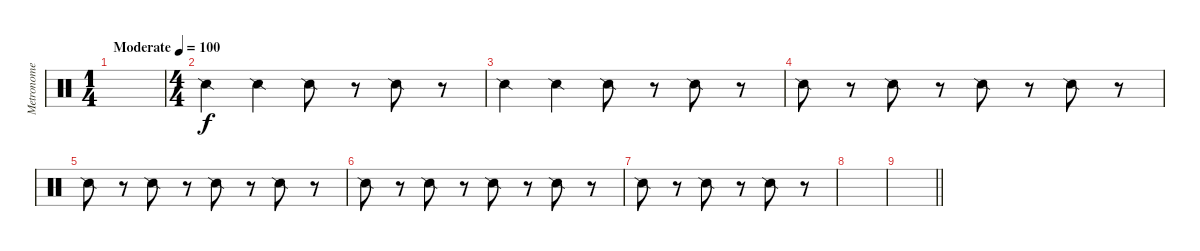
\track ("Metronome" "Metronome") {instrument percussion}
\staff {score}
\articulation defaults
\ts (1 4)
\tempo (100 "Moderate")
\clef neutral
\ks c
|
\ts (4 4)
"Snare (side stick) 2".4 "Snare (side stick) 2".4 "Snare (side stick) 2".8 r.8 "Snare (side stick) 2".8 r.8 |
"Snare (side stick) 2".4 "Snare (side stick) 2".4 "Snare (side stick) 2".8 r.8 "Snare (side stick) 2".8 r.8 |
"Snare (side stick) 2".8 r.8 "Snare (side stick) 2".8 r.8 "Snare (side stick) 2".8 r.8 "Snare (side stick) 2".8 r.8 |
"Snare (side stick) 2".8 r.8 "Snare (side stick) 2".8 r.8 "Snare (side stick) 2".8 r.8 "Snare (side stick) 2".8 r.8 |
"Snare (side stick) 2".8 r.8 "Snare (side stick) 2".8 r.8 "Snare (side stick) 2".8 r.8 "Snare (side stick) 2".8 r.8 |
"Snare (side stick) 2".8 r.8 "Snare (side stick) 2".8 r.8 "Snare (side stick) 2".8 r.8 |
|
\barLineRight lightlight
